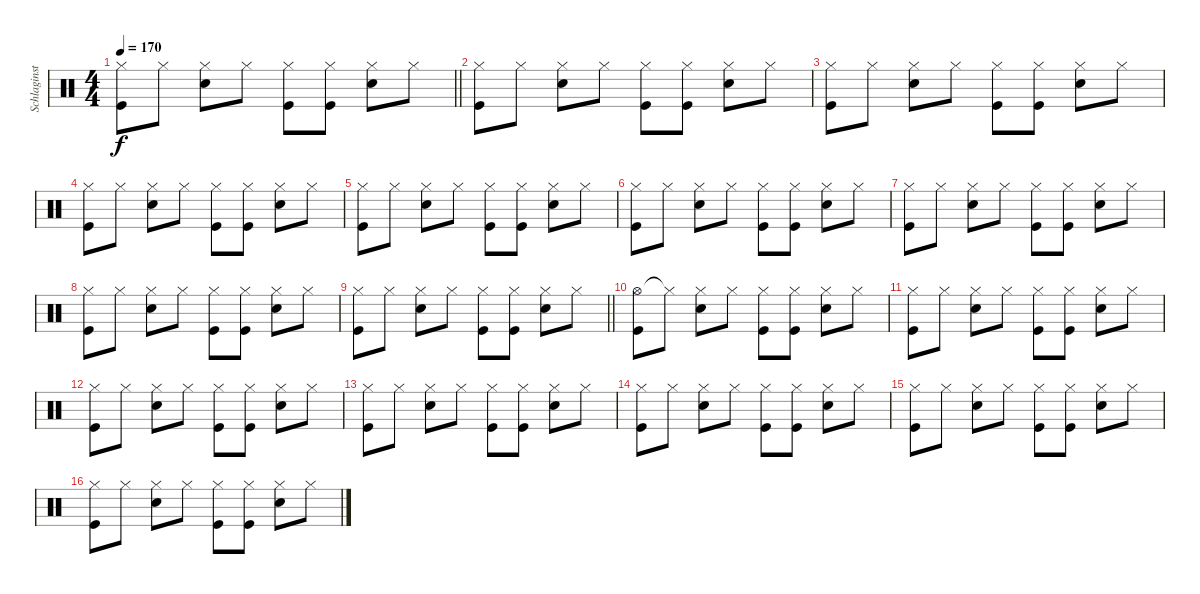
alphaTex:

\track ("Schlaginstrumente - Auswahl" "Schlaginst") {instrument percussion}
\staff {score}
\articulation defaults
\ts (4 4)
\tempo 170
\clef neutral
\barLineRight lightlight
\ks c
("Hi-Hat (closed)" "Kick (hit)").8{dy f} "Hi-Hat (closed)".8 ("Hi-Hat (closed)" "Electric Snare (hit)").8 "Hi-Hat (closed)".8 ("Hi-Hat (closed)" "Kick (hit)").8 ("Hi-Hat (closed)" "Kick (hit)").8 ("Hi-Hat (closed)" "Electric Snare (hit)").8 "Hi-Hat (closed)".8 |
("Hi-Hat (closed)" "Kick (hit)").8 "Hi-Hat (closed)".8 ("Hi-Hat (closed)" "Electric Snare (hit)").8 "Hi-Hat (closed)".8 ("Hi-Hat (closed)" "Kick (hit)").8 ("Hi-Hat (closed)" "Kick (hit)").8 ("Hi-Hat (closed)" "Electric Snare (hit)").8 "Hi-Hat (closed)".8 |
("Hi-Hat (closed)" "Kick (hit)").8 "Hi-Hat (closed)".8 ("Hi-Hat (closed)" "Electric Snare (hit)").8 "Hi-Hat (closed)".8 ("Hi-Hat (closed)" "Kick (hit)").8 ("Hi-Hat (closed)" "Kick (hit)").8 ("Hi-Hat (closed)" "Electric Snare (hit)").8 "Hi-Hat (closed)".8 |
("Hi-Hat (closed)" "Kick (hit)").8 "Hi-Hat (closed)".8 ("Hi-Hat (closed)" "Electric Snare (hit)").8 "Hi-Hat (closed)".8 ("Hi-Hat (closed)" "Kick (hit)").8 ("Hi-Hat (closed)" "Kick (hit)").8 ("Hi-Hat (closed)" "Electric Snare (hit)").8 "Hi-Hat (closed)".8 |
("Hi-Hat (closed)" "Kick (hit)").8 "Hi-Hat (closed)".8 ("Hi-Hat (closed)" "Electric Snare (hit)").8 "Hi-Hat (closed)".8 ("Hi-Hat (closed)" "Kick (hit)").8 ("Hi-Hat (closed)" "Kick (hit)").8 ("Hi-Hat (closed)" "Electric Snare (hit)").8 "Hi-Hat (closed)".8 |
("Hi-Hat (closed)" "Kick (hit)").8 "Hi-Hat (closed)".8 ("Hi-Hat (closed)" "Electric Snare (hit)").8 "Hi-Hat (closed)".8 ("Hi-Hat (closed)" "Kick (hit)").8 ("Hi-Hat (closed)" "Kick (hit)").8 ("Hi-Hat (closed)" "Electric Snare (hit)").8 "Hi-Hat (closed)".8 |
("Hi-Hat (closed)" "Kick (hit)").8 "Hi-Hat (closed)".8 ("Hi-Hat (closed)" "Electric Snare (hit)").8 "Hi-Hat (closed)".8 ("Hi-Hat (closed)" "Kick (hit)").8 ("Hi-Hat (closed)" "Kick (hit)").8 ("Hi-Hat (closed)" "Electric Snare (hit)").8 "Hi-Hat (closed)".8 |
("Hi-Hat (closed)" "Kick (hit)").8 "Hi-Hat (closed)".8 ("Hi-Hat (closed)" "Electric Snare (hit)").8 "Hi-Hat (closed)".8 ("Hi-Hat (closed)" "Kick (hit)").8 ("Hi-Hat (closed)" "Kick (hit)").8 ("Hi-Hat (closed)" "Electric Snare (hit)").8 "Hi-Hat (closed)".8 |
\barLineRight lightlight
("Hi-Hat (closed)" "Kick (hit)").8 "Hi-Hat (closed)".8 ("Hi-Hat (closed)" "Electric Snare (hit)").8 "Hi-Hat (closed)".8 ("Hi-Hat (closed)" "Kick (hit)").8 ("Hi-Hat (closed)" "Kick (hit)").8 ("Hi-Hat (closed)" "Electric Snare (hit)").8 "Hi-Hat (closed)".8 |
("Hi-Hat (open)" "Kick (hit)").8 "Hi-Hat (closed)"{t}.8 ("Hi-Hat (closed)" "Electric Snare (hit)").8 "Hi-Hat (closed)".8 ("Hi-Hat (closed)" "Kick (hit)").8 ("Hi-Hat (closed)" "Kick (hit)").8 ("Hi-Hat (closed)" "Electric Snare (hit)").8 "Hi-Hat (closed)".8 |
("Hi-Hat (closed)" "Kick (hit)").8 "Hi-Hat (closed)".8 ("Hi-Hat (closed)" "Electric Snare (hit)").8 "Hi-Hat (closed)".8 ("Hi-Hat (closed)" "Kick (hit)").8 ("Hi-Hat (closed)" "Kick (hit)").8 ("Hi-Hat (closed)" "Electric Snare (hit)").8 "Hi-Hat (closed)".8 |
("Hi-Hat (closed)" "Kick (hit)").8 "Hi-Hat (closed)".8 ("Hi-Hat (closed)" "Electric Snare (hit)").8 "Hi-Hat (closed)".8 ("Hi-Hat (closed)" "Kick (hit)").8 ("Hi-Hat (closed)" "Kick (hit)").8 ("Hi-Hat (closed)" "Electric Snare (hit)").8 "Hi-Hat (closed)".8 |
("Hi-Hat (closed)" "Kick (hit)").8 "Hi-Hat (closed)".8 ("Hi-Hat (closed)" "Electric Snare (hit)").8 "Hi-Hat (closed)".8 ("Hi-Hat (closed)" "Kick (hit)").8 ("Hi-Hat (closed)" "Kick (hit)").8 ("Hi-Hat (closed)" "Electric Snare (hit)").8 "Hi-Hat (closed)".8 |
("Hi-Hat (closed)" "Kick (hit)").8 "Hi-Hat (closed)".8 ("Hi-Hat (closed)" "Electric Snare (hit)").8 "Hi-Hat (closed)".8 ("Hi-Hat (closed)" "Kick (hit)").8 ("Hi-Hat (closed)" "Kick (hit)").8 ("Hi-Hat (closed)" "Electric Snare (hit)").8 "Hi-Hat (closed)".8 |
("Hi-Hat (closed)" "Kick (hit)").8 "Hi-Hat (closed)".8 ("Hi-Hat (closed)" "Electric Snare (hit)").8 "Hi-Hat (closed)".8 ("Hi-Hat (closed)" "Kick (hit)").8 ("Hi-Hat (closed)" "Kick (hit)").8 ("Hi-Hat (closed)" "Electric Snare (hit)").8 "Hi-Hat (closed)".8 |
("Hi-Hat (closed)" "Kick (hit)").8 "Hi-Hat (closed)".8 ("Hi-Hat (closed)" "Electric Snare (hit)").8 "Hi-Hat (closed)".8 ("Hi-Hat (closed)" "Kick (hit)").8 ("Hi-Hat (closed)" "Kick (hit)").8 ("Hi-Hat (closed)" "Electric Snare (hit)").8 "Hi-Hat (closed)".8
